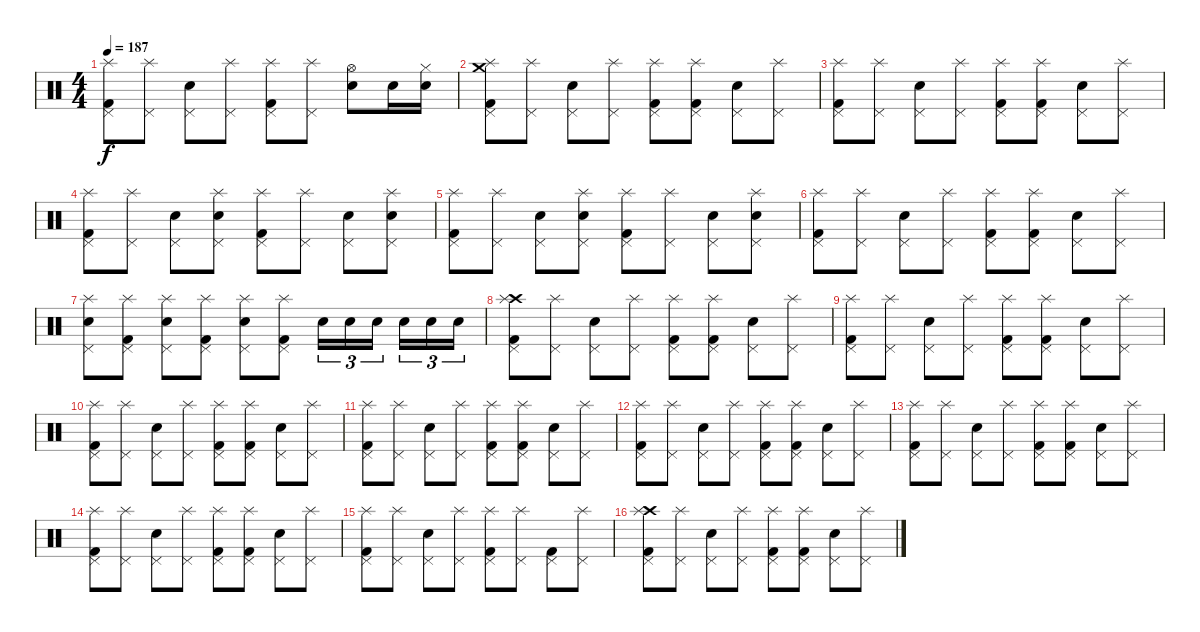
\track "" {instrument percussion}
\staff {score}
\articulation defaults
\ts (4 4)
\tempo 187
\clef neutral
\ks c
("Splash (hit)" "Pedal Hi-Hat (hit)" "Kick (hit) 2").8{dy f} ("Splash (hit)" "Pedal Hi-Hat (hit)").8 ("Electric Snare (hit)" "Pedal Hi-Hat (hit)").8 ("Splash (hit)" "Pedal Hi-Hat (hit)").8 ("Splash (hit)" "Pedal Hi-Hat (hit)" "Kick (hit) 2").8 ("Splash (hit)" "Pedal Hi-Hat (hit)").8 ("Hi-Hat (open)" "Electric Snare (hit)").8 "Electric Snare (hit)".16 ("Hi-Hat (closed)" "Electric Snare (hit)").16 |
("Splash (hit)" "Crash medium (hit)" "Pedal Hi-Hat (hit)" "Kick (hit) 2").8 ("Splash (hit)" "Pedal Hi-Hat (hit)").8 ("Pedal Hi-Hat (hit)" "Electric Snare (hit)").8 ("Splash (hit)" "Pedal Hi-Hat (hit)").8 ("Splash (hit)" "Pedal Hi-Hat (hit)" "Kick (hit) 2").8 ("Splash (hit)" "Pedal Hi-Hat (hit)" "Kick (hit) 2").8 ("Pedal Hi-Hat (hit)" "Electric Snare (hit)").8 ("Splash (hit)" "Pedal Hi-Hat (hit)").8 |
("Splash (hit)" "Pedal Hi-Hat (hit)" "Kick (hit) 2").8 ("Splash (hit)" "Pedal Hi-Hat (hit)").8 ("Pedal Hi-Hat (hit)" "Electric Snare (hit)").8 ("Splash (hit)" "Pedal Hi-Hat (hit)").8 ("Splash (hit)" "Pedal Hi-Hat (hit)" "Kick (hit) 2").8 ("Splash (hit)" "Pedal Hi-Hat (hit)" "Kick (hit) 2").8 ("Pedal Hi-Hat (hit)" "Electric Snare (hit)").8 ("Splash (hit)" "Pedal Hi-Hat (hit)").8 |
("Pedal Hi-Hat (hit)" "Kick (hit) 2" "Splash (hit)").8 ("Pedal Hi-Hat (hit)" "Splash (hit)").8 ("Pedal Hi-Hat (hit)" "Electric Snare (hit)").8 ("Electric Snare (hit)" "Pedal Hi-Hat (hit)" "Splash (hit)").8 ("Pedal Hi-Hat (hit)" "Kick (hit) 2" "Splash (hit)").8 ("Pedal Hi-Hat (hit)" "Splash (hit)").8 ("Pedal Hi-Hat (hit)" "Electric Snare (hit)").8 ("Electric Snare (hit)" "Pedal Hi-Hat (hit)" "Splash (hit)").8 |
("Pedal Hi-Hat (hit)" "Kick (hit) 2" "Splash (hit)").8 ("Pedal Hi-Hat (hit)" "Splash (hit)").8 ("Pedal Hi-Hat (hit)" "Electric Snare (hit)").8 ("Electric Snare (hit)" "Pedal Hi-Hat (hit)" "Splash (hit)").8 ("Pedal Hi-Hat (hit)" "Kick (hit) 2" "Splash (hit)").8 ("Pedal Hi-Hat (hit)" "Splash (hit)").8 ("Pedal Hi-Hat (hit)" "Electric Snare (hit)").8 ("Electric Snare (hit)" "Pedal Hi-Hat (hit)" "Splash (hit)").8 |
("Pedal Hi-Hat (hit)" "Kick (hit) 2" "Splash (hit)").8 ("Pedal Hi-Hat (hit)" "Splash (hit)").8 ("Pedal Hi-Hat (hit)" "Electric Snare (hit)").8 ("Pedal Hi-Hat (hit)" "Splash (hit)").8 ("Pedal Hi-Hat (hit)" "Kick (hit) 2" "Splash (hit)").8 ("Pedal Hi-Hat (hit)" "Kick (hit) 2" "Splash (hit)").8 ("Pedal Hi-Hat (hit)" "Electric Snare (hit)").8 ("Pedal Hi-Hat (hit)" "Splash (hit)").8 |
("Pedal Hi-Hat (hit)" "Electric Snare (hit)" "Splash (hit)").8 ("Pedal Hi-Hat (hit)" "Kick (hit) 2" "Splash (hit)").8 ("Pedal Hi-Hat (hit)" "Electric Snare (hit)" "Splash (hit)").8 ("Pedal Hi-Hat (hit)" "Kick (hit) 2" "Splash (hit)").8 ("Pedal Hi-Hat (hit)" "Electric Snare (hit)" "Splash (hit)").8 ("Pedal Hi-Hat (hit)" "Kick (hit) 2" "Splash (hit)").8 "Electric Snare (hit)".16{tu (3 2)} "Electric Snare (hit)".16{tu (3 2)} "Electric Snare (hit)".16{tu (3 2)} "Electric Snare (hit)".16{tu (3 2)} "Electric Snare (hit)".16{tu (3 2)} "Electric Snare (hit)".16{tu (3 2)} |
("Pedal Hi-Hat (hit)" "Kick (hit) 2" "Crash high (hit)" "Splash (hit)").8 ("Pedal Hi-Hat (hit)" "Splash (hit)").8 ("Pedal Hi-Hat (hit)" "Electric Snare (hit)").8 ("Pedal Hi-Hat (hit)" "Splash (hit)").8 ("Pedal Hi-Hat (hit)" "Kick (hit) 2" "Splash (hit)").8 ("Pedal Hi-Hat (hit)" "Kick (hit) 2" "Splash (hit)").8 ("Pedal Hi-Hat (hit)" "Electric Snare (hit)").8 ("Pedal Hi-Hat (hit)" "Splash (hit)").8 |
("Pedal Hi-Hat (hit)" "Kick (hit) 2" "Splash (hit)").8 ("Pedal Hi-Hat (hit)" "Splash (hit)").8 ("Pedal Hi-Hat (hit)" "Electric Snare (hit)").8 ("Pedal Hi-Hat (hit)" "Splash (hit)").8 ("Pedal Hi-Hat (hit)" "Kick (hit) 2" "Splash (hit)").8 ("Pedal Hi-Hat (hit)" "Kick (hit) 2" "Splash (hit)").8 ("Pedal Hi-Hat (hit)" "Electric Snare (hit)").8 ("Pedal Hi-Hat (hit)" "Splash (hit)").8 |
("Pedal Hi-Hat (hit)" "Kick (hit) 2" "Splash (hit)").8 ("Pedal Hi-Hat (hit)" "Splash (hit)").8 ("Pedal Hi-Hat (hit)" "Electric Snare (hit)").8 ("Pedal Hi-Hat (hit)" "Splash (hit)").8 ("Pedal Hi-Hat (hit)" "Kick (hit) 2" "Splash (hit)").8 ("Pedal Hi-Hat (hit)" "Kick (hit) 2" "Splash (hit)").8 ("Pedal Hi-Hat (hit)" "Electric Snare (hit)").8 ("Pedal Hi-Hat (hit)" "Splash (hit)").8 |
("Pedal Hi-Hat (hit)" "Kick (hit) 2" "Splash (hit)").8 ("Pedal Hi-Hat (hit)" "Splash (hit)").8 ("Pedal Hi-Hat (hit)" "Electric Snare (hit)").8 ("Pedal Hi-Hat (hit)" "Splash (hit)").8 ("Pedal Hi-Hat (hit)" "Kick (hit) 2" "Splash (hit)").8 ("Pedal Hi-Hat (hit)" "Kick (hit) 2" "Splash (hit)").8 ("Pedal Hi-Hat (hit)" "Electric Snare (hit)").8 ("Pedal Hi-Hat (hit)" "Splash (hit)").8 |
("Pedal Hi-Hat (hit)" "Kick (hit) 2" "Splash (hit)").8 ("Pedal Hi-Hat (hit)" "Splash (hit)").8 ("Pedal Hi-Hat (hit)" "Electric Snare (hit)").8 ("Pedal Hi-Hat (hit)" "Splash (hit)").8 ("Pedal Hi-Hat (hit)" "Kick (hit) 2" "Splash (hit)").8 ("Pedal Hi-Hat (hit)" "Kick (hit) 2" "Splash (hit)").8 ("Pedal Hi-Hat (hit)" "Electric Snare (hit)").8 ("Pedal Hi-Hat (hit)" "Splash (hit)").8 |
("Pedal Hi-Hat (hit)" "Kick (hit) 2" "Splash (hit)").8 ("Pedal Hi-Hat (hit)" "Splash (hit)").8 ("Pedal Hi-Hat (hit)" "Electric Snare (hit)").8 ("Pedal Hi-Hat (hit)" "Splash (hit)").8 ("Pedal Hi-Hat (hit)" "Kick (hit) 2" "Splash (hit)").8 ("Pedal Hi-Hat (hit)" "Kick (hit) 2" "Splash (hit)").8 ("Pedal Hi-Hat (hit)" "Electric Snare (hit)").8 ("Pedal Hi-Hat (hit)" "Splash (hit)").8 |
("Pedal Hi-Hat (hit)" "Kick (hit) 2" "Splash (hit)").8 ("Pedal Hi-Hat (hit)" "Splash (hit)").8 ("Pedal Hi-Hat (hit)" "Electric Snare (hit)").8 ("Pedal Hi-Hat (hit)" "Splash (hit)").8 ("Pedal Hi-Hat (hit)" "Kick (hit) 2" "Splash (hit)").8 ("Pedal Hi-Hat (hit)" "Kick (hit) 2" "Splash (hit)").8 ("Pedal Hi-Hat (hit)" "Electric Snare (hit)").8 ("Pedal Hi-Hat (hit)" "Splash (hit)").8 |
("Pedal Hi-Hat (hit)" "Kick (hit) 2" "Splash (hit)").8 ("Pedal Hi-Hat (hit)" "Splash (hit)").8 ("Pedal Hi-Hat (hit)" "Electric Snare (hit)").8 ("Pedal Hi-Hat (hit)" "Splash (hit)").8 ("Pedal Hi-Hat (hit)" "Kick (hit) 2" "Splash (hit)").8 ("Pedal Hi-Hat (hit)" "Splash (hit)").8 ("Pedal Hi-Hat (hit)" "Kick (hit) 2").8 ("Pedal Hi-Hat (hit)" "Splash (hit)").8 |
("Crash high (hit)" "Splash (hit)" "Pedal Hi-Hat (hit)" "Kick (hit) 2").8 ("Splash (hit)" "Pedal Hi-Hat (hit)").8 ("Pedal Hi-Hat (hit)" "Electric Snare (hit)").8 ("Splash (hit)" "Pedal Hi-Hat (hit)").8 ("Splash (hit)" "Pedal Hi-Hat (hit)" "Kick (hit) 2").8 ("Splash (hit)" "Pedal Hi-Hat (hit)" "Kick (hit) 2").8 ("Pedal Hi-Hat (hit)" "Electric Snare (hit)").8 ("Splash (hit)" "Pedal Hi-Hat (hit)").8
